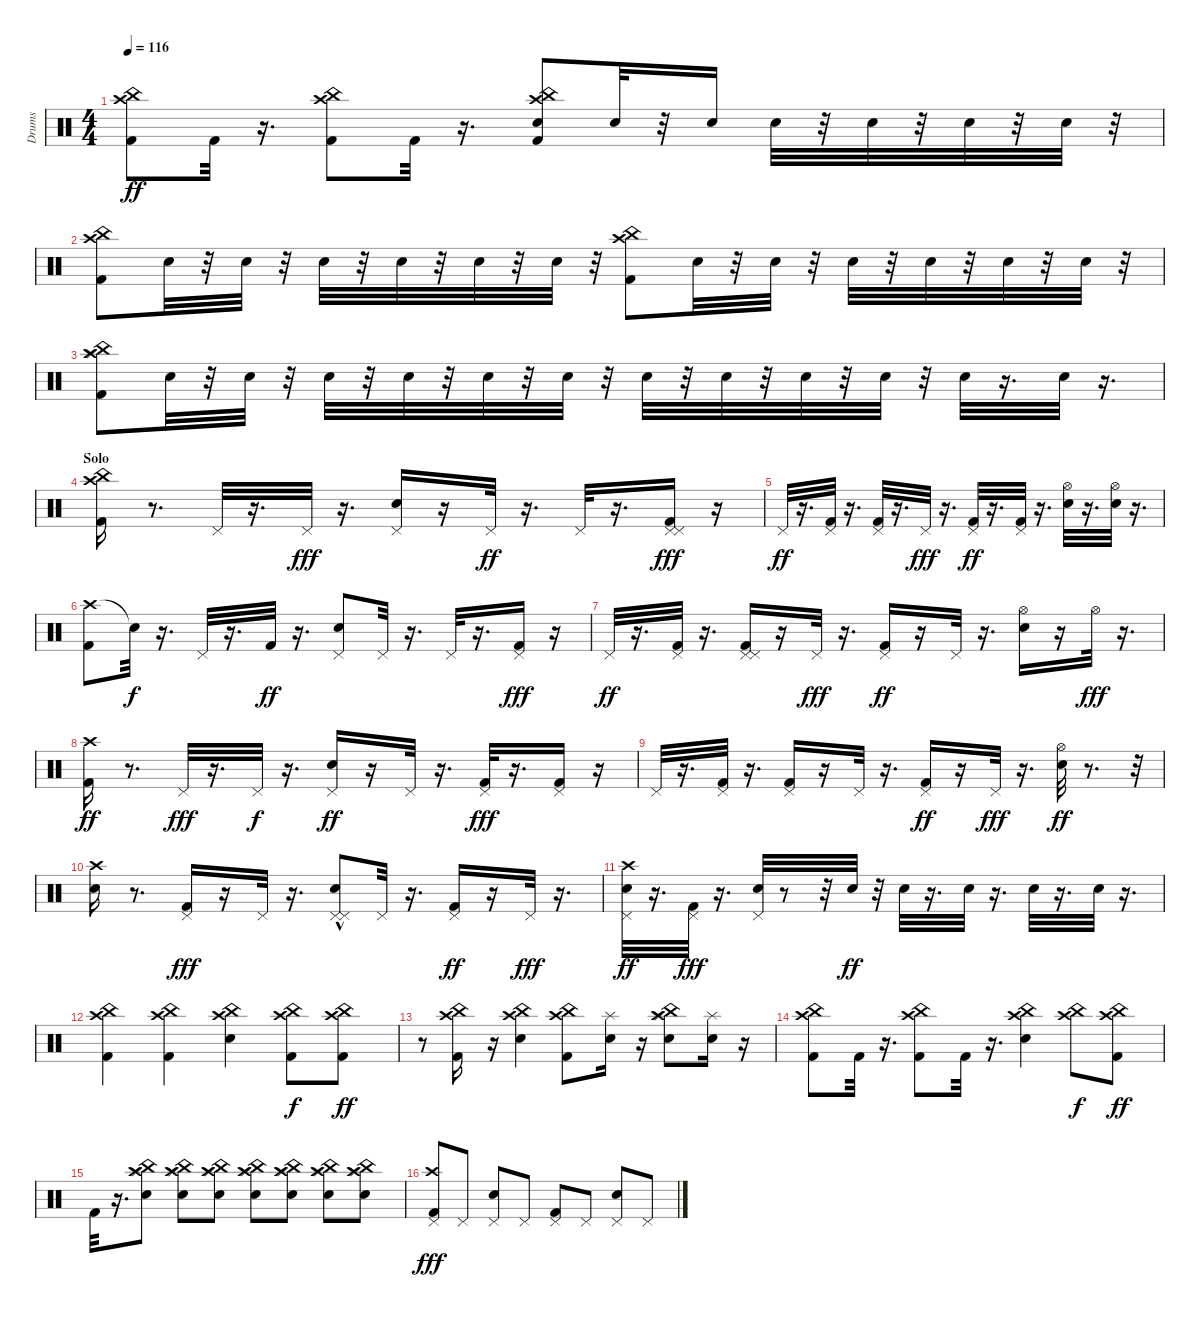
\track ("Drums" "Drums") {instrument percussion}
\staff {score}
\articulation defaults
\ts (4 4)
\tempo 116
\clef neutral
\ks c
("Kick (hit) 2" "Crash high (hit)" "China (hit)").8{dy ff} "Kick (hit) 2".32 r.16{d} ("Kick (hit) 2" "Crash high (hit)" "China (hit)").8 "Kick (hit) 2".32 r.16{d} ("Snare (hit) 2" "Kick (hit) 2" "Crash high (hit)" "China (hit)").8 "Snare (hit) 2".32 r.32 "Snare (hit) 2".16 "Snare (hit) 2".32 r.32 "Snare (hit) 2".32 r.32 "Snare (hit) 2".32 r.32 "Snare (hit) 2".32 r.32 |
("Kick (hit) 2" "China (hit)" "Crash high (hit)").8 "Snare (hit) 2".32 r.32 "Snare (hit) 2".32 r.32 "Snare (hit) 2".32 r.32 "Snare (hit) 2".32 r.32 "Snare (hit) 2".32 r.32 "Snare (hit) 2".32 r.32 ("Kick (hit) 2" "China (hit)" "Crash high (hit)").8 "Snare (hit) 2".32 r.32 "Snare (hit) 2".32 r.32 "Snare (hit) 2".32 r.32 "Snare (hit) 2".32 r.32 "Snare (hit) 2".32 r.32 "Snare (hit) 2".32 r.32 |
("Splash (hit)" "Kick (hit) 2" "Crash high (hit)" "China (hit)").8 "Snare (hit) 2".32 r.32 "Snare (hit) 2".32 r.32 "Snare (hit) 2".32 r.32 "Snare (hit) 2".32 r.32 "Snare (hit) 2".32 r.32 "Snare (hit) 2".32 r.32 "Snare (hit) 2".32 r.32 "Snare (hit) 2".32 r.32 "Snare (hit) 2".32 r.32 "Snare (hit) 2".32 r.32 "Snare (hit) 2".32 r.16{d} "Snare (hit) 2".32 r.16{d} |
\section ("" "Solo")
("China (hit)" "Crash high (hit)" "Kick (hit) 2").16 r.8{d} "Pedal Hi-Hat (hit)".32 r.16{d} "Pedal Hi-Hat (hit)".32{dy fff} r.16{d} ("Snare (hit) 2" "Pedal Hi-Hat (hit)").16 r.16 "Pedal Hi-Hat (hit)".32{dy ff} r.16{d} "Pedal Hi-Hat (hit)".32 r.16{d} ("Kick (hit) 2" "Pedal Hi-Hat (hit)" "Pedal Hi-Hat (hit)").16{dy fff} r.16 |
"Pedal Hi-Hat (hit)".32{dy ff} r.16{d} ("Pedal Hi-Hat (hit)" "Kick (hit) 2").32 r.16{d} ("Pedal Hi-Hat (hit)" "Kick (hit) 2").32 r.16{d} "Pedal Hi-Hat (hit)".32{dy fff} r.16{d} ("Kick (hit) 2" "Pedal Hi-Hat (hit)").32{dy ff} r.16{d} ("Kick (hit) 2" "Pedal Hi-Hat (hit)").32 r.16{d} ("Snare (hit) 2" "Hi-Hat (open)").32 r.16{d} ("Snare (hit) 2" "Hi-Hat (open)").32 r.16{d} |
("Crash high (hit)" "Kick (hit) 2").8 "Snare (hit)"{t}.32{dy f} r.16{d} "Pedal Hi-Hat (hit)".32 r.16{d} "Kick (hit) 2".32{dy ff} r.16{d} ("Pedal Hi-Hat (hit)" "Snare (hit) 2").8 "Pedal Hi-Hat (hit)".32 r.16{d} "Pedal Hi-Hat (hit)".32 r.16{d} ("Kick (hit) 2" "Pedal Hi-Hat (hit)").16{dy fff} r.16 |
"Pedal Hi-Hat (hit)".32{dy ff} r.16{d} ("Pedal Hi-Hat (hit)" "Kick (hit) 2").32 r.16{d} ("Pedal Hi-Hat (hit)" "Kick (hit) 2" "Pedal Hi-Hat (hit)").16 r.16 "Pedal Hi-Hat (hit)".32{dy fff} r.16{d} ("Pedal Hi-Hat (hit)" "Kick (hit) 2").16{dy ff} r.16 "Pedal Hi-Hat (hit)".32 r.16{d} ("Hi-Hat (open)" "Snare (hit) 2").16 r.16 "Hi-Hat (open)".32{dy fff} r.16{d} |
("Kick (hit) 2" "Crash high (hit)").16{dy ff} r.8{d} "Pedal Hi-Hat (hit)".32{dy fff} r.16{d} "Pedal Hi-Hat (hit)".32{dy f} r.16{d} ("Snare (hit) 2" "Pedal Hi-Hat (hit)").16{dy ff} r.16 "Pedal Hi-Hat (hit)".32 r.16{d} ("Kick (hit) 2" "Pedal Hi-Hat (hit)").32{dy fff} r.16{d} ("Kick (hit) 2" "Pedal Hi-Hat (hit)").16 r.16 |
"Pedal Hi-Hat (hit)".32 r.16{d} ("Kick (hit) 2" "Pedal Hi-Hat (hit)").32 r.16{d} ("Kick (hit) 2" "Pedal Hi-Hat (hit)").16 r.16 "Pedal Hi-Hat (hit)".32 r.16{d} ("Kick (hit) 2" "Pedal Hi-Hat (hit)").16{dy ff} r.16 "Pedal Hi-Hat (hit)".32{dy fff} r.16{d} ("Hi-Hat (open)" "Snare (hit) 2").32{dy ff} r.8{d} r.32 |
("Snare (hit) 2" "Crash high (hit)").16 r.8{d} ("Kick (hit) 2" "Pedal Hi-Hat (hit)").16{dy fff} r.16 "Pedal Hi-Hat (hit)".32 r.16{d} ("Pedal Hi-Hat (hit)" "Snare (hit) 2"{hac} "Pedal Hi-Hat (hit)").8 "Pedal Hi-Hat (hit)".32 r.16{d} ("Kick (hit) 2" "Pedal Hi-Hat (hit)").16{dy ff} r.16 "Pedal Hi-Hat (hit)".32{dy fff} r.16{d} |
("Snare (hit) 2" "Crash high (hit)" "Pedal Hi-Hat (hit)").32{dy ff} r.16{d} ("Kick (hit) 2" "Pedal Hi-Hat (hit)").32{dy fff} r.16{d} ("Snare (hit) 2" "Pedal Hi-Hat (hit)").32 r.8 r.32 "Snare (hit) 2".32{dy ff} r.32 "Snare (hit) 2".32 r.16{d} "Snare (hit) 2".32 r.16{d} "Snare (hit) 2".32 r.16{d} "Snare (hit) 2".32 r.16{d} |
("Kick (hit) 2" "China (hit)" "Crash high (hit)").4 ("Kick (hit) 2" "China (hit)" "Crash high (hit)").4 ("Snare (hit) 2" "Crash high (hit)" "China (hit)").4 ("Kick (hit) 2" "China (hit)" "Crash high (hit)").8{dy f} ("Kick (hit) 2" "Crash high (hit)" "China (hit)").8{dy ff} |
r.8 ("Kick (hit) 2" "Crash high (hit)" "China (hit)").16 r.16 ("Snare (hit) 2" "China (hit)" "Crash high (hit)").4 ("Kick (hit) 2" "China (hit)" "Crash high (hit)").8 ("Splash (hit)" "Snare (hit) 2").16 r.16 ("Splash (hit)" "Snare (hit) 2" "China (hit)" "Crash high (hit)").8 ("Splash (hit)" "Snare (hit) 2").16 r.16 |
("Kick (hit) 2" "China (hit)" "Crash high (hit)").8 "Kick (hit) 2".32 r.16{d} ("Kick (hit) 2" "China (hit)" "Crash high (hit)").8 "Kick (hit) 2".32 r.16{d} ("Snare (hit) 2" "Crash high (hit)" "China (hit)").4 ("China (hit)" "Crash high (hit)").8{dy f} ("Kick (hit) 2" "China (hit)" "Crash high (hit)").8{dy ff} |
"Kick (hit) 2".32 r.16{d} ("Splash (hit)" "Snare (hit) 2" "China (hit)" "Crash high (hit)").8 ("Snare (hit) 2" "Splash (hit)" "China (hit)" "Crash high (hit)").8 ("Snare (hit) 2" "Splash (hit)" "China (hit)" "Crash high (hit)").8 ("Snare (hit) 2" "China (hit)" "Crash high (hit)" "Splash (hit)").8 ("Snare (hit) 2" "Splash (hit)" "China (hit)" "Crash high (hit)").8 ("Snare (hit) 2" "Splash (hit)" "China (hit)" "Crash high (hit)").8 ("Snare (hit) 2" "China (hit)" "Crash high (hit)" "Splash (hit)").8 |
("Kick (hit) 2" "Crash high (hit)" "Pedal Hi-Hat (hit)").8{dy fff} "Pedal Hi-Hat (hit)".8 ("Snare (hit) 2" "Pedal Hi-Hat (hit)").8 "Pedal Hi-Hat (hit)".8 ("Kick (hit) 2" "Pedal Hi-Hat (hit)").8 "Pedal Hi-Hat (hit)".8 ("Snare (hit) 2" "Pedal Hi-Hat (hit)").8 "Pedal Hi-Hat (hit)".8
